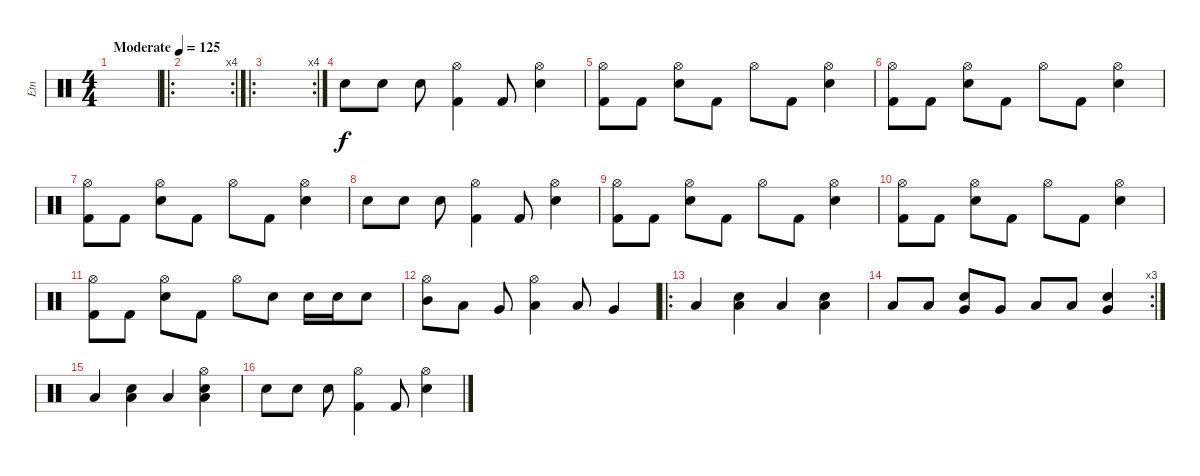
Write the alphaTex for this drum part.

\track ("Etn" "Etn") {instrument percussion}
\staff {score}
\articulation defaults
\ts (4 4)
\tempo (125 "Moderate")
\clef neutral
\ks c
|
\ro
\rc 4
|
\ro
\rc 4
|
"Snare (hit) 2".8 "Snare (hit) 2".8 "Snare (hit) 2".8 ("Hi-Hat (open)" "Kick (hit) 2").4 "Kick (hit) 2".8 ("Hi-Hat (open)" "Snare (hit) 2").4 |
("Hi-Hat (open)" "Kick (hit) 2").8 "Kick (hit) 2".8 ("Hi-Hat (open)" "Snare (hit) 2").8 "Kick (hit) 2".8 "Hi-Hat (open)".8 "Kick (hit) 2".8 ("Hi-Hat (open)" "Snare (hit) 2").4 |
("Hi-Hat (open)" "Kick (hit) 2").8 "Kick (hit) 2".8 ("Hi-Hat (open)" "Snare (hit) 2").8 "Kick (hit) 2".8 "Hi-Hat (open)".8 "Kick (hit) 2".8 ("Hi-Hat (open)" "Snare (hit) 2").4 |
("Hi-Hat (open)" "Kick (hit) 2").8 "Kick (hit) 2".8 ("Hi-Hat (open)" "Snare (hit) 2").8 "Kick (hit) 2".8 "Hi-Hat (open)".8 "Kick (hit) 2".8 ("Hi-Hat (open)" "Snare (hit) 2").4 |
"Snare (hit) 2".8 "Snare (hit) 2".8 "Snare (hit) 2".8 ("Hi-Hat (open)" "Kick (hit) 2").4 "Kick (hit) 2".8 ("Hi-Hat (open)" "Snare (hit) 2").4 |
("Hi-Hat (open)" "Kick (hit) 2").8 "Kick (hit) 2".8 ("Hi-Hat (open)" "Snare (hit) 2").8 "Kick (hit) 2".8 "Hi-Hat (open)".8 "Kick (hit) 2".8 ("Hi-Hat (open)" "Snare (hit) 2").4 |
("Hi-Hat (open)" "Kick (hit) 2").8 "Kick (hit) 2".8 ("Hi-Hat (open)" "Snare (hit) 2").8 "Kick (hit) 2".8 "Hi-Hat (open)".8 "Kick (hit) 2".8 ("Hi-Hat (open)" "Snare (hit) 2").4 |
("Hi-Hat (open)" "Kick (hit) 2").8 "Kick (hit) 2".8 ("Hi-Hat (open)" "Snare (hit) 2").8 "Kick (hit) 2".8 "Hi-Hat (open)".8 "Snare (hit) 2".8 "Snare (hit) 2".16 "Snare (hit) 2".16 "Snare (hit) 2".8 |
("Hi-Hat (open)" "Mid Tom (hit)").8 "Low Tom (hit)".8 "Very Low Tom (hit)".8 ("Hi-Hat (open)" "Low Floor Tom (hit)").4 "Low Floor Tom (hit)".8 "Very Low Tom (hit)".4 |
\ro "Low Floor Tom (hit)".4
("Low Floor Tom (hit)" "Snare (hit) 2").4 "Low Floor Tom (hit)".4 ("Low Floor Tom (hit)" "Snare (hit) 2").4 |
\rc 3 "Low Floor Tom (hit)".8 "Low Floor Tom (hit)".8
("Very Low Tom (hit)" "Snare (hit) 2").8 "Very Low Tom (hit)".8 "Low Floor Tom (hit)".8 "Low Floor Tom (hit)".8 ("Very Low Tom (hit)" "Snare (hit) 2").4 |
"Low Floor Tom (hit)".4 ("Low Floor Tom (hit)" "Snare (hit) 2").4 "Low Floor Tom (hit)".4 ("Hi-Hat (open)" "Low Floor Tom (hit)" "Snare (hit) 2").4 |
"Snare (hit) 2".8 "Snare (hit) 2".8 "Snare (hit) 2".8 ("Hi-Hat (open)" "Kick (hit) 2").4 "Kick (hit) 2".8 ("Hi-Hat (open)" "Snare (hit) 2").4
